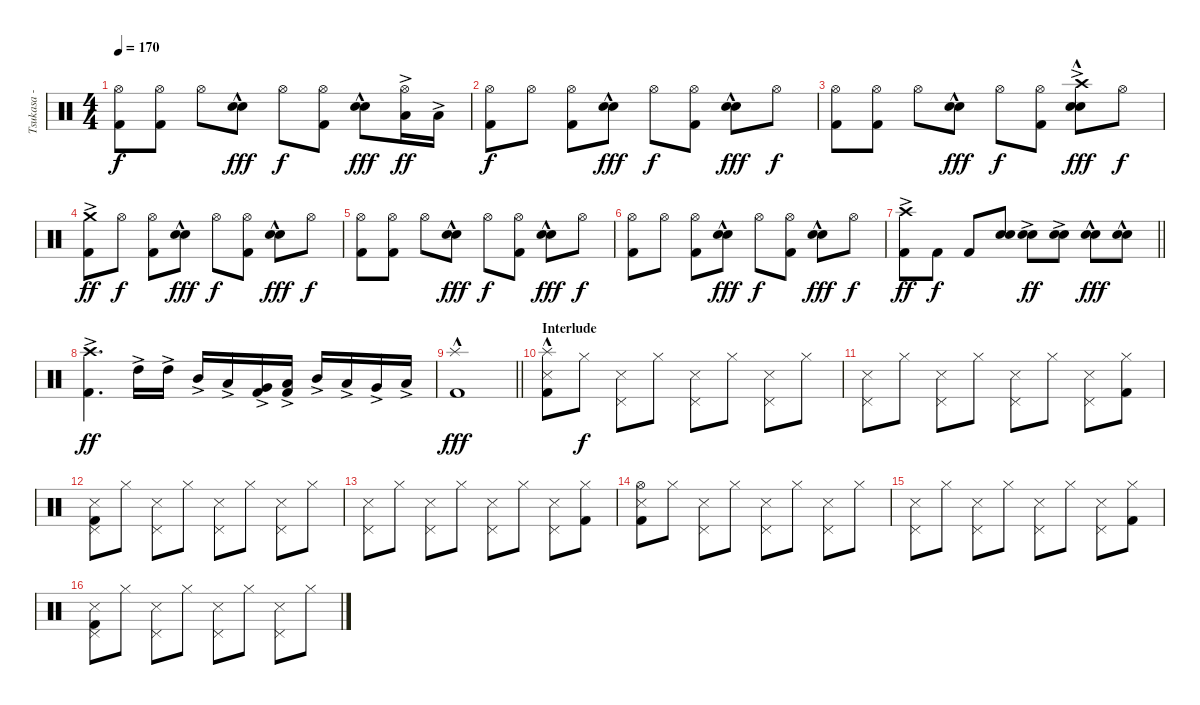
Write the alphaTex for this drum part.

\track ("Tsukasa - Drums" "Tsukasa - ") {instrument percussion}
\staff {score}
\articulation defaults
\ts (4 4)
\tempo 170
\clef neutral
\ks c
("Hi-Hat (open)" "Kick (hit) 2").8{dy f} ("Hi-Hat (open)" "Kick (hit) 2").8 "Hi-Hat (open)".8 ("Electric Snare (hit)"{hac} "Snare (hit) 2").8{dy fff} "Hi-Hat (open)".8{dy f} ("Hi-Hat (open)" "Kick (hit) 2").8 ("Electric Snare (hit)"{hac} "Snare (hit) 2").8{dy fff} ("Hi-Hat (open)" "Low Tom (hit)"{ac}).16{dy ff} "Low Tom (hit)"{ac}.16 |
("Hi-Hat (open)" "Kick (hit) 2").8{dy f} "Hi-Hat (open)".8 ("Hi-Hat (open)" "Kick (hit) 2").8 ("Electric Snare (hit)"{hac} "Snare (hit) 2").8{dy fff} "Hi-Hat (open)".8{dy f} ("Hi-Hat (open)" "Kick (hit) 2").8 ("Electric Snare (hit)"{hac} "Snare (hit) 2").8{dy fff} "Hi-Hat (open)".8{dy f} |
("Hi-Hat (open)" "Kick (hit) 2").8 ("Hi-Hat (open)" "Kick (hit) 2").8 "Hi-Hat (open)".8 ("Electric Snare (hit)"{hac} "Snare (hit) 2").8{dy fff} "Hi-Hat (open)".8{dy f} ("Hi-Hat (open)" "Kick (hit) 2").8 ("Crash high (hit)"{ac} "Electric Snare (hit)"{hac} "Snare (hit) 2").8{dy fff} "Hi-Hat (open)".8{dy f} |
("Crash medium (hit)"{ac} "Kick (hit) 2").8{dy ff} "Hi-Hat (open)".8{dy f} ("Hi-Hat (open)" "Kick (hit) 2").8 ("Electric Snare (hit)"{hac} "Snare (hit) 2").8{dy fff} "Hi-Hat (open)".8{dy f} ("Hi-Hat (open)" "Kick (hit) 2").8 ("Electric Snare (hit)"{hac} "Snare (hit) 2").8{dy fff} "Hi-Hat (open)".8{dy f} |
("Hi-Hat (open)" "Kick (hit) 2").8 ("Hi-Hat (open)" "Kick (hit) 2").8 "Hi-Hat (open)".8 ("Electric Snare (hit)"{hac} "Snare (hit) 2").8{dy fff} "Hi-Hat (open)".8{dy f} ("Hi-Hat (open)" "Kick (hit) 2").8 ("Electric Snare (hit)"{hac} "Snare (hit) 2").8{dy fff} "Hi-Hat (open)".8{dy f} |
("Hi-Hat (open)" "Kick (hit) 2").8 "Hi-Hat (open)".8 ("Hi-Hat (open)" "Kick (hit) 2").8 ("Electric Snare (hit)"{hac} "Snare (hit) 2").8{dy fff} "Hi-Hat (open)".8{dy f} ("Hi-Hat (open)" "Kick (hit) 2").8 ("Electric Snare (hit)"{hac} "Snare (hit) 2").8{dy fff} "Hi-Hat (open)".8{dy f} |
\barLineRight lightlight
("Crash high (hit)"{ac} "Kick (hit) 2").8{dy ff} "Kick (hit) 2".8{dy f} "Kick (hit) 2".8 ("Electric Snare (hit)" "Snare (hit) 2").8 ("Electric Snare (hit)"{ac} "Snare (hit) 2").8{dy ff} ("Electric Snare (hit)"{ac} "Snare (hit) 2").8 ("Electric Snare (hit)"{hac} "Snare (hit) 2").8{dy fff} ("Electric Snare (hit)"{hac} "Snare (hit) 2").8 |
("Crash high (hit)"{ac} "Kick (hit) 2").4{d dy ff} "High Tom (hit)"{ac}.16 "High Tom (hit)"{ac}.16 "Mid Tom (hit)"{ac}.16 "Low Tom (hit)"{ac}.16 ("Very Low Tom (hit)"{ac} "Kick (hit) 2"{ac}).16 ("Low Floor Tom (hit)"{ac} "Kick (hit) 2"{ac}).16 "Mid Tom (hit)"{ac}.16 "Low Tom (hit)"{ac}.16 "Very Low Tom (hit)"{ac}.16 "Low Floor Tom (hit)"{ac}.16 |
\barLineRight lightlight
("Splash (hit)"{hac} "Kick (hit) 2").1{dy fff} |
\section ("" "Interlude")
("Splash (hit)"{hac} "Metronome (hit)" "Kick (hit) 2").8 "Hi-Hat (closed)".8{dy f} ("Pedal Hi-Hat (hit)" "Metronome (hit)").8 "Hi-Hat (closed)".8 ("Pedal Hi-Hat (hit)" "Metronome (hit)").8 "Hi-Hat (closed)".8 ("Pedal Hi-Hat (hit)" "Metronome (hit)").8 "Hi-Hat (closed)".8 |
("Pedal Hi-Hat (hit)" "Metronome (hit)").8 "Hi-Hat (closed)".8 ("Pedal Hi-Hat (hit)" "Metronome (hit)").8 "Hi-Hat (closed)".8 ("Pedal Hi-Hat (hit)" "Metronome (hit)").8 "Hi-Hat (closed)".8 ("Pedal Hi-Hat (hit)" "Metronome (hit)").8 ("Hi-Hat (closed)" "Kick (hit) 2").8 |
("Pedal Hi-Hat (hit)" "Metronome (hit)" "Kick (hit) 2").8 "Hi-Hat (closed)".8 ("Pedal Hi-Hat (hit)" "Metronome (hit)").8 "Hi-Hat (closed)".8 ("Pedal Hi-Hat (hit)" "Metronome (hit)").8 "Hi-Hat (closed)".8 ("Pedal Hi-Hat (hit)" "Metronome (hit)").8 "Hi-Hat (closed)".8 |
("Pedal Hi-Hat (hit)" "Metronome (hit)").8 "Hi-Hat (closed)".8 ("Pedal Hi-Hat (hit)" "Metronome (hit)").8 "Hi-Hat (closed)".8 ("Pedal Hi-Hat (hit)" "Metronome (hit)").8 "Hi-Hat (closed)".8 ("Pedal Hi-Hat (hit)" "Metronome (hit)").8 ("Hi-Hat (closed)" "Kick (hit) 2").8 |
("Hi-Hat (open)" "Metronome (hit)" "Kick (hit) 2").8 "Hi-Hat (closed)".8 ("Pedal Hi-Hat (hit)" "Metronome (hit)").8 "Hi-Hat (closed)".8 ("Pedal Hi-Hat (hit)" "Metronome (hit)").8 "Hi-Hat (closed)".8 ("Pedal Hi-Hat (hit)" "Metronome (hit)").8 "Hi-Hat (closed)".8 |
("Pedal Hi-Hat (hit)" "Metronome (hit)").8 "Hi-Hat (closed)".8 ("Pedal Hi-Hat (hit)" "Metronome (hit)").8 "Hi-Hat (closed)".8 ("Pedal Hi-Hat (hit)" "Metronome (hit)").8 "Hi-Hat (closed)".8 ("Pedal Hi-Hat (hit)" "Metronome (hit)").8 ("Hi-Hat (closed)" "Kick (hit) 2").8 |
("Pedal Hi-Hat (hit)" "Metronome (hit)" "Kick (hit) 2").8 "Hi-Hat (closed)".8 ("Pedal Hi-Hat (hit)" "Metronome (hit)").8 "Hi-Hat (closed)".8 ("Pedal Hi-Hat (hit)" "Metronome (hit)").8 "Hi-Hat (closed)".8 ("Pedal Hi-Hat (hit)" "Metronome (hit)").8 "Hi-Hat (closed)".8
